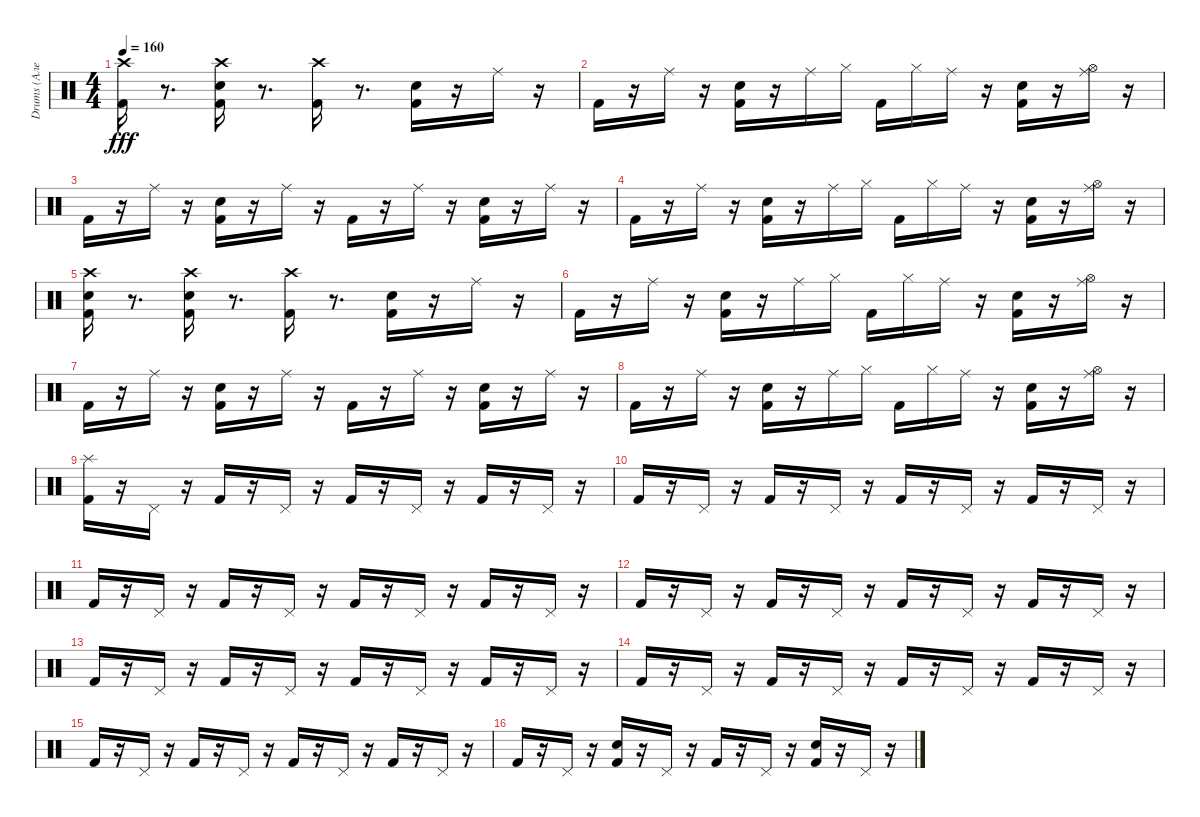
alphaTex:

\track ("Drums (Алексей Барзилович)" "Drums (Але") {instrument percussion}
\staff {score}
\articulation defaults
\ts (4 4)
\tempo 160
\clef neutral
\ks c
("Crash high (hit)" "Kick (hit) 2").16{dy fff} r.8{d} ("Crash high (hit)" "Electric Snare (hit)" "Kick (hit) 2").16 r.8{d} ("Crash high (hit)" "Kick (hit) 2").16 r.8{d} ("Electric Snare (hit)" "Kick (hit) 2").16 r.16 "Ride (middle)".16 r.16 |
"Kick (hit) 2".16 r.16 "Ride (middle)".16 r.16 ("Electric Snare (hit)" "Kick (hit) 2").16 r.16 "Ride (middle)".16 "Hi-Hat (closed)".16 "Kick (hit) 2".16 "Hi-Hat (closed)".16 "Ride (middle)".16 r.16 ("Electric Snare (hit)" "Kick (hit) 2").16 r.16 ("Ride (middle)" "Hi-Hat (open)").16 r.16 |
"Kick (hit) 2".16 r.16 "Ride (middle)".16 r.16 ("Electric Snare (hit)" "Kick (hit) 2").16 r.16 "Ride (middle)".16 r.16 "Kick (hit) 2".16 r.16 "Ride (middle)".16 r.16 ("Electric Snare (hit)" "Kick (hit) 2").16 r.16 "Ride (middle)".16 r.16 |
"Kick (hit) 2".16 r.16 "Ride (middle)".16 r.16 ("Electric Snare (hit)" "Kick (hit) 2").16 r.16 "Ride (middle)".16 "Hi-Hat (closed)".16 "Kick (hit) 2".16 "Hi-Hat (closed)".16 "Ride (middle)".16 r.16 ("Electric Snare (hit)" "Kick (hit) 2").16 r.16 ("Hi-Hat (open)" "Ride (middle)").16 r.16 |
("Electric Snare (hit)" "Kick (hit) 2" "Crash high (hit)").16 r.8{d} ("Crash high (hit)" "Electric Snare (hit)" "Kick (hit) 2").16 r.8{d} ("Crash high (hit)" "Kick (hit) 2").16 r.8{d} ("Kick (hit) 2" "Electric Snare (hit)").16 r.16 "Ride (middle)".16 r.16 |
"Kick (hit) 2".16 r.16 "Ride (middle)".16 r.16 ("Electric Snare (hit)" "Kick (hit) 2").16 r.16 "Ride (middle)".16 "Hi-Hat (closed)".16 "Kick (hit) 2".16 "Hi-Hat (closed)".16 "Ride (middle)".16 r.16 ("Electric Snare (hit)" "Kick (hit) 2").16 r.16 ("Hi-Hat (open)" "Ride (middle)").16 r.16 |
"Kick (hit) 2".16 r.16 "Ride (middle)".16 r.16 ("Kick (hit) 2" "Electric Snare (hit)").16 r.16 "Ride (middle)".16 r.16 "Kick (hit) 2".16 r.16 "Ride (middle)".16 r.16 ("Electric Snare (hit)" "Kick (hit) 2").16 r.16 "Ride (middle)".16 r.16 |
"Kick (hit) 2".16 r.16 "Ride (middle)".16 r.16 ("Kick (hit) 2" "Electric Snare (hit)").16 r.16 "Ride (middle)".16 "Hi-Hat (closed)".16 "Kick (hit) 2".16 "Hi-Hat (closed)".16 "Ride (middle)".16 r.16 ("Kick (hit) 2" "Electric Snare (hit)").16 r.16 ("Hi-Hat (open)" "Ride (middle)").16 r.16 |
("Splash (hit)" "Kick (hit) 2").16 r.16 "Pedal Hi-Hat (hit)".16 r.16 "Kick (hit) 2".16 r.16 "Pedal Hi-Hat (hit)".16 r.16 "Kick (hit) 2".16 r.16 "Pedal Hi-Hat (hit)".16 r.16 "Kick (hit) 2".16 r.16 "Pedal Hi-Hat (hit)".16 r.16 |
"Kick (hit) 2".16 r.16 "Pedal Hi-Hat (hit)".16 r.16 "Kick (hit) 2".16 r.16 "Pedal Hi-Hat (hit)".16 r.16 "Kick (hit) 2".16 r.16 "Pedal Hi-Hat (hit)".16 r.16 "Kick (hit) 2".16 r.16 "Pedal Hi-Hat (hit)".16 r.16 |
"Kick (hit) 2".16 r.16 "Pedal Hi-Hat (hit)".16 r.16 "Kick (hit) 2".16 r.16 "Pedal Hi-Hat (hit)".16 r.16 "Kick (hit) 2".16 r.16 "Pedal Hi-Hat (hit)".16 r.16 "Kick (hit) 2".16 r.16 "Pedal Hi-Hat (hit)".16 r.16 |
"Kick (hit) 2".16 r.16 "Pedal Hi-Hat (hit)".16 r.16 "Kick (hit) 2".16 r.16 "Pedal Hi-Hat (hit)".16 r.16 "Kick (hit) 2".16 r.16 "Pedal Hi-Hat (hit)".16 r.16 "Kick (hit) 2".16 r.16 "Pedal Hi-Hat (hit)".16 r.16 |
"Kick (hit) 2".16 r.16 "Pedal Hi-Hat (hit)".16 r.16 "Kick (hit) 2".16 r.16 "Pedal Hi-Hat (hit)".16 r.16 "Kick (hit) 2".16 r.16 "Pedal Hi-Hat (hit)".16 r.16 "Kick (hit) 2".16 r.16 "Pedal Hi-Hat (hit)".16 r.16 |
"Kick (hit) 2".16 r.16 "Pedal Hi-Hat (hit)".16 r.16 "Kick (hit) 2".16 r.16 "Pedal Hi-Hat (hit)".16 r.16 "Kick (hit) 2".16 r.16 "Pedal Hi-Hat (hit)".16 r.16 "Kick (hit) 2".16 r.16 "Pedal Hi-Hat (hit)".16 r.16 |
"Kick (hit) 2".16 r.16 "Pedal Hi-Hat (hit)".16 r.16 "Kick (hit) 2".16 r.16 "Pedal Hi-Hat (hit)".16 r.16 "Kick (hit) 2".16 r.16 "Pedal Hi-Hat (hit)".16 r.16 "Kick (hit) 2".16 r.16 "Pedal Hi-Hat (hit)".16 r.16 |
"Kick (hit) 2".16 r.16 "Pedal Hi-Hat (hit)".16 r.16 ("Electric Snare (hit)" "Kick (hit) 2").16 r.16 "Pedal Hi-Hat (hit)".16 r.16 "Kick (hit) 2".16 r.16 "Pedal Hi-Hat (hit)".16 r.16 ("Electric Snare (hit)" "Kick (hit) 2").16 r.16 "Pedal Hi-Hat (hit)".16 r.16
